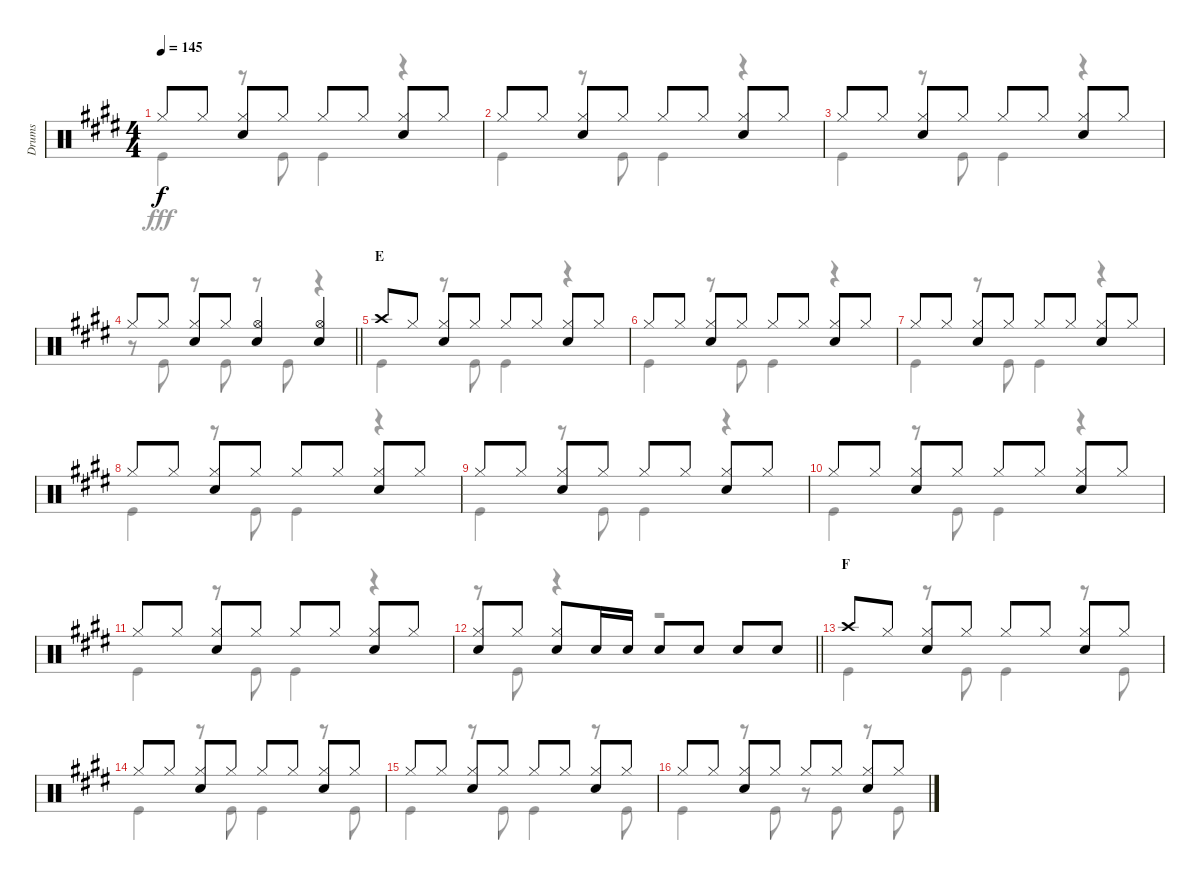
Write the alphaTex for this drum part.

\track ("Drums" "Drums") {instrument percussion}
\staff {score}
\articulation defaults
\voice
\ts (4 4)
\tempo 145
\clef neutral
\ks e "Hi-Hat (closed)".8{dy f} "Hi-Hat (closed)".8
("Hi-Hat (closed)" "Snare (hit) 2").8 "Hi-Hat (closed)".8 "Hi-Hat (closed)".8 "Hi-Hat (closed)".8 ("Hi-Hat (closed)" "Snare (hit) 2").8 "Hi-Hat (closed)".8 |
"Hi-Hat (closed)".8 "Hi-Hat (closed)".8 ("Hi-Hat (closed)" "Snare (hit) 2").8 "Hi-Hat (closed)".8 "Hi-Hat (closed)".8 "Hi-Hat (closed)".8 ("Hi-Hat (closed)" "Snare (hit) 2").8 "Hi-Hat (closed)".8 |
"Hi-Hat (closed)".8 "Hi-Hat (closed)".8 ("Hi-Hat (closed)" "Snare (hit) 2").8 "Hi-Hat (closed)".8 "Hi-Hat (closed)".8 "Hi-Hat (closed)".8 ("Hi-Hat (closed)" "Snare (hit) 2").8 "Hi-Hat (closed)".8 |
\barLineRight lightlight "Hi-Hat (closed)".8 "Hi-Hat (closed)".8
("Hi-Hat (closed)" "Snare (hit) 2").8 "Hi-Hat (closed)".8 ("Hi-Hat (open)" "Snare (hit) 2").4 ("Hi-Hat (open)" "Snare (hit) 2").4 |
\section ("" "E")
"Crash high (hit)".8 "Hi-Hat (closed)".8 ("Hi-Hat (closed)" "Snare (hit) 2").8 "Hi-Hat (closed)".8 "Hi-Hat (closed)".8 "Hi-Hat (closed)".8 ("Hi-Hat (closed)" "Snare (hit) 2").8 "Hi-Hat (closed)".8 |
"Hi-Hat (closed)".8 "Hi-Hat (closed)".8 ("Hi-Hat (closed)" "Snare (hit) 2").8 "Hi-Hat (closed)".8 "Hi-Hat (closed)".8 "Hi-Hat (closed)".8 ("Hi-Hat (closed)" "Snare (hit) 2").8 "Hi-Hat (closed)".8 |
"Hi-Hat (closed)".8 "Hi-Hat (closed)".8 ("Hi-Hat (closed)" "Snare (hit) 2").8 "Hi-Hat (closed)".8 "Hi-Hat (closed)".8 "Hi-Hat (closed)".8 ("Hi-Hat (closed)" "Snare (hit) 2").8 "Hi-Hat (closed)".8 |
"Hi-Hat (closed)".8 "Hi-Hat (closed)".8 ("Hi-Hat (closed)" "Snare (hit) 2").8 "Hi-Hat (closed)".8 "Hi-Hat (closed)".8 "Hi-Hat (closed)".8 ("Hi-Hat (closed)" "Snare (hit) 2").8 "Hi-Hat (closed)".8 |
"Hi-Hat (closed)".8 "Hi-Hat (closed)".8 ("Hi-Hat (closed)" "Snare (hit) 2").8 "Hi-Hat (closed)".8 "Hi-Hat (closed)".8 "Hi-Hat (closed)".8 ("Hi-Hat (closed)" "Snare (hit) 2").8 "Hi-Hat (closed)".8 |
"Hi-Hat (closed)".8 "Hi-Hat (closed)".8 ("Hi-Hat (closed)" "Snare (hit) 2").8 "Hi-Hat (closed)".8 "Hi-Hat (closed)".8 "Hi-Hat (closed)".8 ("Hi-Hat (closed)" "Snare (hit) 2").8 "Hi-Hat (closed)".8 |
"Hi-Hat (closed)".8 "Hi-Hat (closed)".8 ("Hi-Hat (closed)" "Snare (hit) 2").8 "Hi-Hat (closed)".8 "Hi-Hat (closed)".8 "Hi-Hat (closed)".8 ("Hi-Hat (closed)" "Snare (hit) 2").8 "Hi-Hat (closed)".8 |
\barLineRight lightlight
("Hi-Hat (closed)" "Snare (hit) 2").8 "Hi-Hat (closed)".8 ("Hi-Hat (closed)" "Snare (hit) 2").8 "Snare (hit) 2".16 "Snare (hit) 2".16 "Snare (hit) 2".8 "Snare (hit) 2".8 "Snare (hit) 2".8 "Snare (hit) 2".8 |
\section ("" "F")
"Crash high (hit)".8 "Hi-Hat (closed)".8 ("Hi-Hat (closed)" "Snare (hit) 2").8 "Hi-Hat (closed)".8 "Hi-Hat (closed)".8 "Hi-Hat (closed)".8 ("Hi-Hat (closed)" "Snare (hit) 2").8 "Hi-Hat (closed)".8 |
"Hi-Hat (closed)".8 "Hi-Hat (closed)".8 ("Hi-Hat (closed)" "Snare (hit) 2").8 "Hi-Hat (closed)".8 "Hi-Hat (closed)".8 "Hi-Hat (closed)".8 ("Hi-Hat (closed)" "Snare (hit) 2").8 "Hi-Hat (closed)".8 |
"Hi-Hat (closed)".8 "Hi-Hat (closed)".8 ("Hi-Hat (closed)" "Snare (hit) 2").8 "Hi-Hat (closed)".8 "Hi-Hat (closed)".8 "Hi-Hat (closed)".8 ("Hi-Hat (closed)" "Snare (hit) 2").8 "Hi-Hat (closed)".8 |
"Hi-Hat (closed)".8 "Hi-Hat (closed)".8 ("Hi-Hat (closed)" "Snare (hit) 2").8 "Hi-Hat (closed)".8 "Hi-Hat (closed)".8 "Hi-Hat (closed)".8 ("Hi-Hat (closed)" "Snare (hit) 2").8 "Hi-Hat (closed)".8
\voice
\clef neutral
\ottava regular
\simile none
\ks e "Kick (hit)".4{dy fff}
r.8 "Kick (hit)".8 "Kick (hit)".4 r.4 |
"Kick (hit)".4 r.8 "Kick (hit)".8 "Kick (hit)".4 r.4 |
"Kick (hit)".4 r.8 "Kick (hit)".8 "Kick (hit)".4 r.4 |
\barLineRight lightlight
r.8 "Kick (hit)".8 r.8 "Kick (hit)".8 r.8 "Kick (hit)".8 r.4 |
"Kick (hit)".4 r.8 "Kick (hit)".8 "Kick (hit)".4 r.4 |
"Kick (hit)".4 r.8 "Kick (hit)".8 "Kick (hit)".4 r.4 |
"Kick (hit)".4 r.8 "Kick (hit)".8 "Kick (hit)".4 r.4 |
"Kick (hit)".4 r.8 "Kick (hit)".8 "Kick (hit)".4 r.4 |
"Kick (hit)".4 r.8 "Kick (hit)".8 "Kick (hit)".4 r.4 |
"Kick (hit)".4 r.8 "Kick (hit)".8 "Kick (hit)".4 r.4 |
"Kick (hit)".4 r.8 "Kick (hit)".8 "Kick (hit)".4 r.4 |
\barLineRight lightlight
r.8 "Kick (hit)".8 r.4 r.2 |
"Kick (hit)".4 r.8 "Kick (hit)".8 "Kick (hit)".4 r.8 "Kick (hit)".8 |
"Kick (hit)".4 r.8 "Kick (hit)".8 "Kick (hit)".4 r.8 "Kick (hit)".8 |
"Kick (hit)".4 r.8 "Kick (hit)".8 "Kick (hit)".4 r.8 "Kick (hit)".8 |
"Kick (hit)".4 r.8 "Kick (hit)".8 r.8 "Kick (hit)".8 r.8 "Kick (hit)".8
